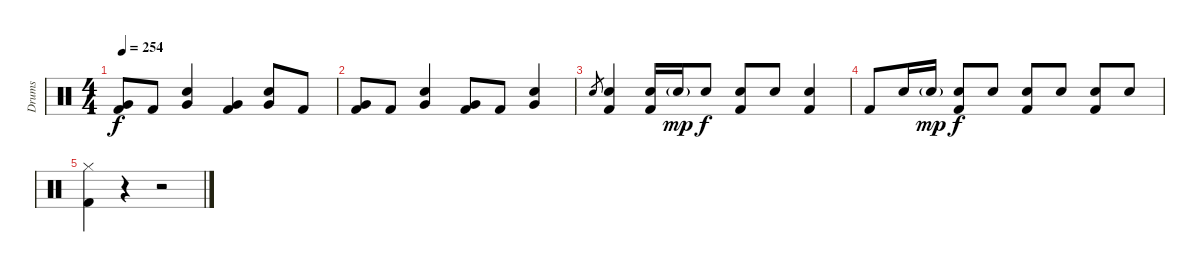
\track ("Drums" "Drums") {instrument percussion}
\staff {score}
\articulation defaults
\ts (4 4)
\tempo 254
\clef neutral
\ks c
("Very Low Tom (hit)" "Kick (hit) 2").8{dy f} "Kick (hit) 2".8 ("Very Low Tom (hit)" "Electric Snare (hit)").4 ("Very Low Tom (hit)" "Kick (hit) 2").4 ("Very Low Tom (hit)" "Electric Snare (hit)").8 "Kick (hit) 2".8 |
("Very Low Tom (hit)" "Kick (hit) 2").8 "Kick (hit) 2".8 ("Very Low Tom (hit)" "Electric Snare (hit)").4 ("Very Low Tom (hit)" "Kick (hit) 2").8 "Kick (hit) 2".8 ("Very Low Tom (hit)" "Electric Snare (hit)").4 |
"Electric Snare (hit)".8{gr} ("Electric Snare (hit)" "Kick (hit) 2").4 ("Electric Snare (hit)" "Kick (hit) 2").16 "Electric Snare (hit)"{g}.16{dy mp} "Electric Snare (hit)".8{dy f} ("Electric Snare (hit)" "Kick (hit) 2").8 "Electric Snare (hit)".8 ("Electric Snare (hit)" "Kick (hit) 2").4 |
"Kick (hit) 2".8 "Electric Snare (hit)".16 "Electric Snare (hit)"{g}.16{dy mp} ("Electric Snare (hit)" "Kick (hit) 2").8{dy f} "Electric Snare (hit)".8 ("Electric Snare (hit)" "Kick (hit) 2").8 "Electric Snare (hit)".8 ("Electric Snare (hit)" "Kick (hit) 2").8 "Electric Snare (hit)".8 |
("Hi-Hat (closed)" "Kick (hit) 2").4 r.4 r.2
